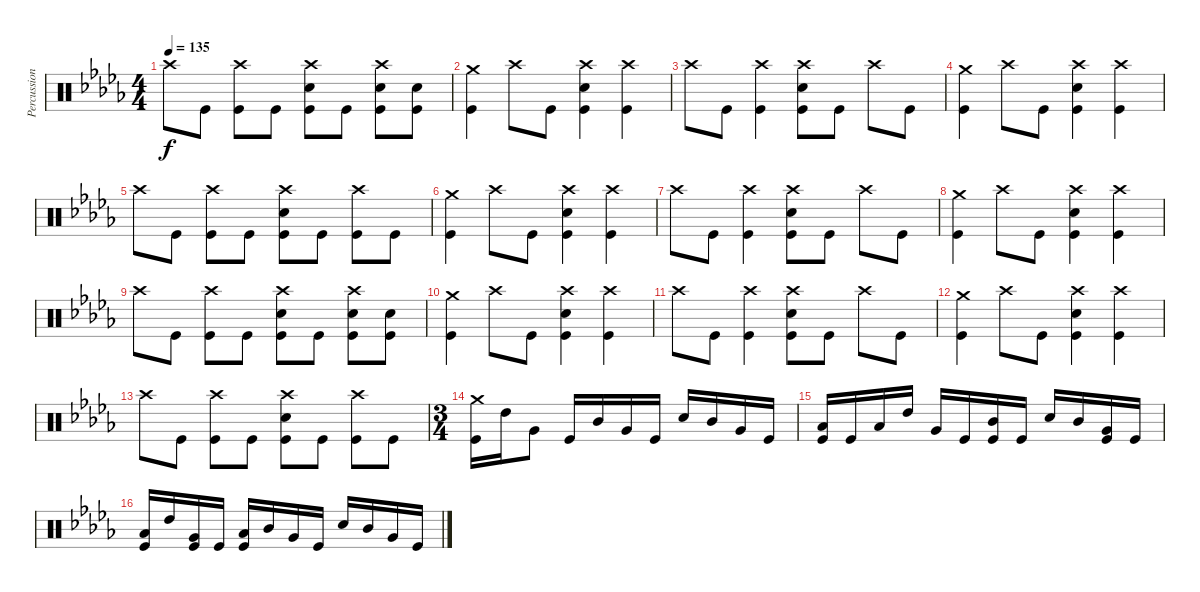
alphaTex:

\track ("Percussion" "Percussion") {instrument percussion}
\staff {score}
\articulation defaults
\ts (4 4)
\tempo 135
\clef neutral
\ks db "Crash high (hit)".8{dy f} "Kick (hit)".8
("Crash high (hit)" "Kick (hit)").8 "Kick (hit)".8 ("Crash high (hit)" "Electric Snare (hit)" "Kick (hit)").8 "Kick (hit)".8 ("Crash high (hit)" "Electric Snare (hit)" "Kick (hit)").8 ("Electric Snare (hit)" "Kick (hit)").8 |
("Crash medium (hit)" "Kick (hit)").4 "Crash high (hit)".8 "Kick (hit)".8 ("Crash high (hit)" "Electric Snare (hit)" "Kick (hit)").4 ("Crash high (hit)" "Kick (hit)").4 |
"Crash high (hit)".8 "Kick (hit)".8 ("Crash high (hit)" "Kick (hit)").4 ("Crash high (hit)" "Electric Snare (hit)" "Kick (hit)").8 "Kick (hit)".8 "Crash high (hit)".8 "Kick (hit)".8 |
("Crash medium (hit)" "Kick (hit)").4 "Crash high (hit)".8 "Kick (hit)".8 ("Crash high (hit)" "Electric Snare (hit)" "Kick (hit)").4 ("Crash high (hit)" "Kick (hit)").4 |
"Crash high (hit)".8 "Kick (hit)".8 ("Crash high (hit)" "Kick (hit)").8 "Kick (hit)".8 ("Crash high (hit)" "Electric Snare (hit)" "Kick (hit)").8 "Kick (hit)".8 ("Crash high (hit)" "Kick (hit)").8 "Kick (hit)".8 |
("Crash medium (hit)" "Kick (hit)").4 "Crash high (hit)".8 "Kick (hit)".8 ("Crash high (hit)" "Electric Snare (hit)" "Kick (hit)").4 ("Crash high (hit)" "Kick (hit)").4 |
"Crash high (hit)".8 "Kick (hit)".8 ("Crash high (hit)" "Kick (hit)").4 ("Crash high (hit)" "Electric Snare (hit)" "Kick (hit)").8 "Kick (hit)".8 "Crash high (hit)".8 "Kick (hit)".8 |
("Crash medium (hit)" "Kick (hit)").4 "Crash high (hit)".8 "Kick (hit)".8 ("Crash high (hit)" "Electric Snare (hit)" "Kick (hit)").4 ("Crash high (hit)" "Kick (hit)").4 |
"Crash high (hit)".8 "Kick (hit)".8 ("Crash high (hit)" "Kick (hit)").8 "Kick (hit)".8 ("Crash high (hit)" "Electric Snare (hit)" "Kick (hit)").8 "Kick (hit)".8 ("Crash high (hit)" "Electric Snare (hit)" "Kick (hit)").8 ("Electric Snare (hit)" "Kick (hit)").8 |
("Crash medium (hit)" "Kick (hit)").4 "Crash high (hit)".8 "Kick (hit)".8 ("Crash high (hit)" "Electric Snare (hit)" "Kick (hit)").4 ("Crash high (hit)" "Kick (hit)").4 |
"Crash high (hit)".8 "Kick (hit)".8 ("Crash high (hit)" "Kick (hit)").4 ("Crash high (hit)" "Electric Snare (hit)" "Kick (hit)").8 "Kick (hit)".8 "Crash high (hit)".8 "Kick (hit)".8 |
("Crash medium (hit)" "Kick (hit)").4 "Crash high (hit)".8 "Kick (hit)".8 ("Crash high (hit)" "Electric Snare (hit)" "Kick (hit)").4 ("Crash high (hit)" "Kick (hit)").4 |
"Crash high (hit)".8 "Kick (hit)".8 ("Crash high (hit)" "Kick (hit)").8 "Kick (hit)".8 ("Crash high (hit)" "Electric Snare (hit)" "Kick (hit)").8 "Kick (hit)".8 ("Crash high (hit)" "Kick (hit)").8 "Kick (hit)".8 |
\ts (3 4)
("Crash medium (hit)" "Kick (hit)").16 "High Tom (hit)".16 "Very Low Tom (hit)".8 "Kick (hit)".16 "Mid Tom (hit)".16 "Very Low Tom (hit)".16 "Kick (hit)".16 "Electric Snare (hit)".16 "Mid Tom (hit)".16 "Very Low Tom (hit)".16 "Kick (hit)".16 |
("Low Tom (hit)" "Kick (hit)").16 "Kick (hit)".16 "Low Tom (hit)".16 "High Tom (hit)".16 "Very Low Tom (hit)".16 "Kick (hit)".16 ("Mid Tom (hit)" "Kick (hit)").16 "Kick (hit)".16 "Electric Snare (hit)".16 "Mid Tom (hit)".16 ("Very Low Tom (hit)" "Kick (hit)").16 "Kick (hit)".16 |
("Low Tom (hit)" "Kick (hit)").16 "High Tom (hit)".16 ("Very Low Tom (hit)" "Kick (hit)").16 "Kick (hit)".16 ("Low Tom (hit)" "Kick (hit)").16 "Mid Tom (hit)".16 "Very Low Tom (hit)".16 "Kick (hit)".16 "Electric Snare (hit)".16 "Mid Tom (hit)".16 "Very Low Tom (hit)".16 "Kick (hit)".16
